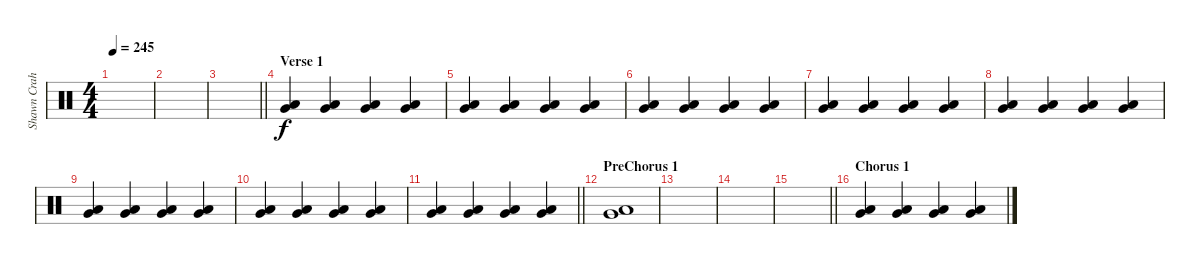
\track ("Shawn Crahan" "Shawn Crah") {instrument percussion}
\staff {score}
\articulation defaults
\ts (4 4)
\tempo 245
\clef neutral
\ks c
|
|
\barLineRight lightlight
|
\section ("" "Verse 1")
("Very Low Tom (hit)" "Low Floor Tom (hit)").4 ("Very Low Tom (hit)" "Low Floor Tom (hit)").4 ("Very Low Tom (hit)" "Low Floor Tom (hit)").4 ("Very Low Tom (hit)" "Low Floor Tom (hit)").4 |
("Very Low Tom (hit)" "Low Floor Tom (hit)").4 ("Very Low Tom (hit)" "Low Floor Tom (hit)").4 ("Very Low Tom (hit)" "Low Floor Tom (hit)").4 ("Very Low Tom (hit)" "Low Floor Tom (hit)").4 |
("Very Low Tom (hit)" "Low Floor Tom (hit)").4 ("Very Low Tom (hit)" "Low Floor Tom (hit)").4 ("Very Low Tom (hit)" "Low Floor Tom (hit)").4 ("Very Low Tom (hit)" "Low Floor Tom (hit)").4 |
("Very Low Tom (hit)" "Low Floor Tom (hit)").4 ("Very Low Tom (hit)" "Low Floor Tom (hit)").4 ("Very Low Tom (hit)" "Low Floor Tom (hit)").4 ("Very Low Tom (hit)" "Low Floor Tom (hit)").4 |
("Very Low Tom (hit)" "Low Floor Tom (hit)").4 ("Very Low Tom (hit)" "Low Floor Tom (hit)").4 ("Very Low Tom (hit)" "Low Floor Tom (hit)").4 ("Very Low Tom (hit)" "Low Floor Tom (hit)").4 |
("Very Low Tom (hit)" "Low Floor Tom (hit)").4 ("Very Low Tom (hit)" "Low Floor Tom (hit)").4 ("Very Low Tom (hit)" "Low Floor Tom (hit)").4 ("Very Low Tom (hit)" "Low Floor Tom (hit)").4 |
("Very Low Tom (hit)" "Low Floor Tom (hit)").4 ("Very Low Tom (hit)" "Low Floor Tom (hit)").4 ("Very Low Tom (hit)" "Low Floor Tom (hit)").4 ("Very Low Tom (hit)" "Low Floor Tom (hit)").4 |
\barLineRight lightlight
("Very Low Tom (hit)" "Low Floor Tom (hit)").4 ("Very Low Tom (hit)" "Low Floor Tom (hit)").4 ("Very Low Tom (hit)" "Low Floor Tom (hit)").4 ("Very Low Tom (hit)" "Low Floor Tom (hit)").4 |
\section ("" "PreChorus 1")
("Very Low Tom (hit)" "Low Floor Tom (hit)").1 |
|
|
\barLineRight lightlight
|
\section ("" "Chorus 1")
("Very Low Tom (hit)" "Low Floor Tom (hit)").4 ("Very Low Tom (hit)" "Low Floor Tom (hit)").4 ("Very Low Tom (hit)" "Low Floor Tom (hit)").4 ("Very Low Tom (hit)" "Low Floor Tom (hit)").4
